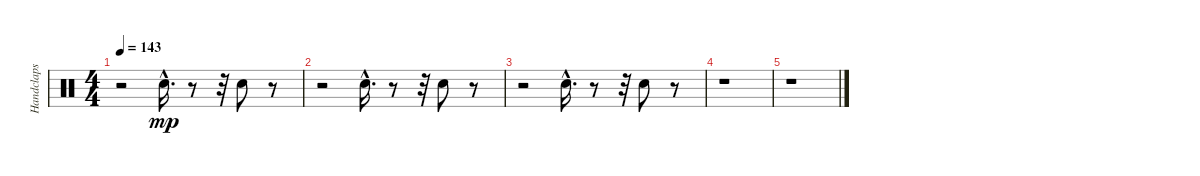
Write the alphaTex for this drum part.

\track ("Handclaps" "Handclaps") {instrument percussion}
\staff {score}
\articulation defaults
\ts (4 4)
\tempo 143
\clef neutral
\ks c
r.2{dy mp} "Hand Clap (hit)"{hac}.16{d} r.8 r.32 "Hand Clap (hit)".8 r.8 |
r.2 "Hand Clap (hit)"{hac}.16{d} r.8 r.32 "Hand Clap (hit)".8 r.8 |
r.2 "Hand Clap (hit)"{hac}.16{d} r.8 r.32 "Hand Clap (hit)".8 r.8 |
r.1 |
r.1
